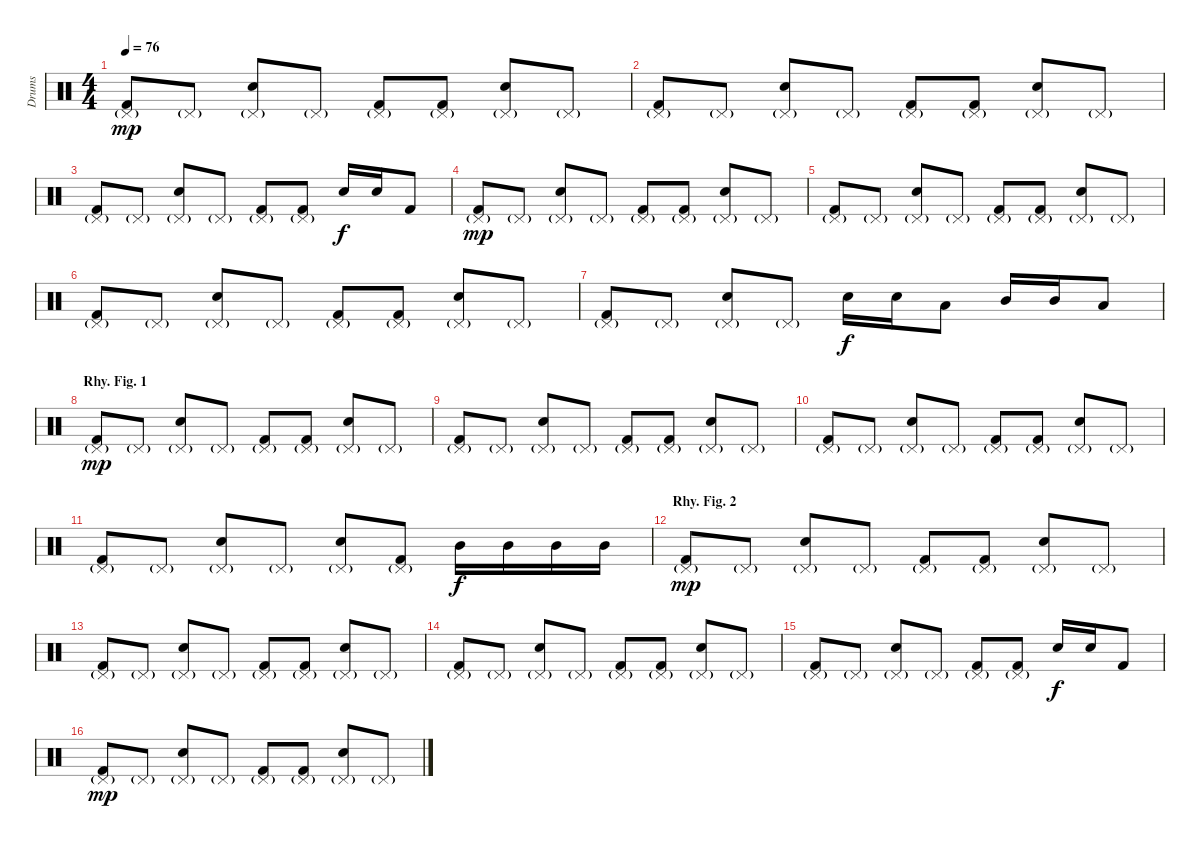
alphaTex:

\track ("Drums" "Drums") {instrument percussion}
\staff {score}
\articulation defaults
\ts (4 4)
\tempo 76
\clef neutral
\ks c
("Pedal Hi-Hat (hit)"{g} "Kick (hit) 2").8{dy mp} "Pedal Hi-Hat (hit)"{g}.8 ("Pedal Hi-Hat (hit)"{g} "Snare (hit) 2").8 "Pedal Hi-Hat (hit)"{g}.8 ("Pedal Hi-Hat (hit)"{g} "Kick (hit) 2").8 ("Pedal Hi-Hat (hit)"{g} "Kick (hit) 2").8 ("Pedal Hi-Hat (hit)"{g} "Snare (hit) 2").8 "Pedal Hi-Hat (hit)"{g}.8 |
("Pedal Hi-Hat (hit)"{g} "Kick (hit) 2").8 "Pedal Hi-Hat (hit)"{g}.8 ("Pedal Hi-Hat (hit)"{g} "Snare (hit) 2").8 "Pedal Hi-Hat (hit)"{g}.8 ("Pedal Hi-Hat (hit)"{g} "Kick (hit) 2").8 ("Pedal Hi-Hat (hit)"{g} "Kick (hit) 2").8 ("Pedal Hi-Hat (hit)"{g} "Snare (hit) 2").8 "Pedal Hi-Hat (hit)"{g}.8 |
("Pedal Hi-Hat (hit)"{g} "Kick (hit) 2").8 "Pedal Hi-Hat (hit)"{g}.8 ("Pedal Hi-Hat (hit)"{g} "Snare (hit) 2").8 "Pedal Hi-Hat (hit)"{g}.8 ("Pedal Hi-Hat (hit)"{g} "Kick (hit) 2").8 ("Pedal Hi-Hat (hit)"{g} "Kick (hit) 2").8 "Snare (hit) 2".16{dy f} "Snare (hit) 2".16 "Kick (hit) 2".8 |
("Pedal Hi-Hat (hit)"{g} "Kick (hit) 2").8{dy mp} "Pedal Hi-Hat (hit)"{g}.8 ("Pedal Hi-Hat (hit)"{g} "Snare (hit) 2").8 "Pedal Hi-Hat (hit)"{g}.8 ("Pedal Hi-Hat (hit)"{g} "Kick (hit) 2").8 ("Pedal Hi-Hat (hit)"{g} "Kick (hit) 2").8 ("Pedal Hi-Hat (hit)"{g} "Snare (hit) 2").8 "Pedal Hi-Hat (hit)"{g}.8 |
("Pedal Hi-Hat (hit)"{g} "Kick (hit) 2").8 "Pedal Hi-Hat (hit)"{g}.8 ("Pedal Hi-Hat (hit)"{g} "Snare (hit) 2").8 "Pedal Hi-Hat (hit)"{g}.8 ("Pedal Hi-Hat (hit)"{g} "Kick (hit) 2").8 ("Pedal Hi-Hat (hit)"{g} "Kick (hit) 2").8 ("Pedal Hi-Hat (hit)"{g} "Snare (hit) 2").8 "Pedal Hi-Hat (hit)"{g}.8 |
("Pedal Hi-Hat (hit)"{g} "Kick (hit) 2").8 "Pedal Hi-Hat (hit)"{g}.8 ("Pedal Hi-Hat (hit)"{g} "Snare (hit) 2").8 "Pedal Hi-Hat (hit)"{g}.8 ("Pedal Hi-Hat (hit)"{g} "Kick (hit) 2").8 ("Pedal Hi-Hat (hit)"{g} "Kick (hit) 2").8 ("Pedal Hi-Hat (hit)"{g} "Snare (hit) 2").8 "Pedal Hi-Hat (hit)"{g}.8 |
("Pedal Hi-Hat (hit)"{g} "Kick (hit) 2").8 "Pedal Hi-Hat (hit)"{g}.8 ("Pedal Hi-Hat (hit)"{g} "Snare (hit) 2").8 "Pedal Hi-Hat (hit)"{g}.8 "Snare (hit) 2".16{dy f} "Snare (hit) 2".16 "Low Tom (hit)".8 "Mid Tom (hit)".16 "Mid Tom (hit)".16 "Low Tom (hit)".8 |
\section ("" "Rhy. Fig. 1")
("Pedal Hi-Hat (hit)"{g} "Kick (hit) 2").8{dy mp} "Pedal Hi-Hat (hit)"{g}.8 ("Pedal Hi-Hat (hit)"{g} "Snare (hit) 2").8 "Pedal Hi-Hat (hit)"{g}.8 ("Pedal Hi-Hat (hit)"{g} "Kick (hit) 2").8 ("Pedal Hi-Hat (hit)"{g} "Kick (hit) 2").8 ("Pedal Hi-Hat (hit)"{g} "Snare (hit) 2").8 "Pedal Hi-Hat (hit)"{g}.8 |
("Pedal Hi-Hat (hit)"{g} "Kick (hit) 2").8 "Pedal Hi-Hat (hit)"{g}.8 ("Pedal Hi-Hat (hit)"{g} "Snare (hit) 2").8 "Pedal Hi-Hat (hit)"{g}.8 ("Pedal Hi-Hat (hit)"{g} "Kick (hit) 2").8 ("Pedal Hi-Hat (hit)"{g} "Kick (hit) 2").8 ("Pedal Hi-Hat (hit)"{g} "Snare (hit) 2").8 "Pedal Hi-Hat (hit)"{g}.8 |
("Pedal Hi-Hat (hit)"{g} "Kick (hit) 2").8 "Pedal Hi-Hat (hit)"{g}.8 ("Pedal Hi-Hat (hit)"{g} "Snare (hit) 2").8 "Pedal Hi-Hat (hit)"{g}.8 ("Pedal Hi-Hat (hit)"{g} "Kick (hit) 2").8 ("Pedal Hi-Hat (hit)"{g} "Kick (hit) 2").8 ("Pedal Hi-Hat (hit)"{g} "Snare (hit) 2").8 "Pedal Hi-Hat (hit)"{g}.8 |
("Pedal Hi-Hat (hit)"{g} "Kick (hit) 2").8 "Pedal Hi-Hat (hit)"{g}.8 ("Pedal Hi-Hat (hit)"{g} "Snare (hit) 2").8 "Pedal Hi-Hat (hit)"{g}.8 ("Pedal Hi-Hat (hit)"{g} "Snare (hit) 2").8 ("Pedal Hi-Hat (hit)"{g} "Kick (hit) 2").8 "Mid Tom (hit)".16{dy f} "Mid Tom (hit)".16 "Mid Tom (hit)".16 "Mid Tom (hit)".16 |
\section ("" "Rhy. Fig. 2")
("Pedal Hi-Hat (hit)"{g} "Kick (hit) 2").8{dy mp} "Pedal Hi-Hat (hit)"{g}.8 ("Pedal Hi-Hat (hit)"{g} "Snare (hit) 2").8 "Pedal Hi-Hat (hit)"{g}.8 ("Pedal Hi-Hat (hit)"{g} "Kick (hit) 2").8 ("Pedal Hi-Hat (hit)"{g} "Kick (hit) 2").8 ("Pedal Hi-Hat (hit)"{g} "Snare (hit) 2").8 "Pedal Hi-Hat (hit)"{g}.8 |
("Pedal Hi-Hat (hit)"{g} "Kick (hit) 2").8 "Pedal Hi-Hat (hit)"{g}.8 ("Pedal Hi-Hat (hit)"{g} "Snare (hit) 2").8 "Pedal Hi-Hat (hit)"{g}.8 ("Pedal Hi-Hat (hit)"{g} "Kick (hit) 2").8 ("Pedal Hi-Hat (hit)"{g} "Kick (hit) 2").8 ("Pedal Hi-Hat (hit)"{g} "Snare (hit) 2").8 "Pedal Hi-Hat (hit)"{g}.8 |
("Pedal Hi-Hat (hit)"{g} "Kick (hit) 2").8 "Pedal Hi-Hat (hit)"{g}.8 ("Pedal Hi-Hat (hit)"{g} "Snare (hit) 2").8 "Pedal Hi-Hat (hit)"{g}.8 ("Pedal Hi-Hat (hit)"{g} "Kick (hit) 2").8 ("Pedal Hi-Hat (hit)"{g} "Kick (hit) 2").8 ("Pedal Hi-Hat (hit)"{g} "Snare (hit) 2").8 "Pedal Hi-Hat (hit)"{g}.8 |
("Pedal Hi-Hat (hit)"{g} "Kick (hit) 2").8 "Pedal Hi-Hat (hit)"{g}.8 ("Pedal Hi-Hat (hit)"{g} "Snare (hit) 2").8 "Pedal Hi-Hat (hit)"{g}.8 ("Pedal Hi-Hat (hit)"{g} "Kick (hit) 2").8 ("Pedal Hi-Hat (hit)"{g} "Kick (hit) 2").8 "Snare (hit) 2".16{dy f} "Snare (hit) 2".16 "Kick (hit) 2".8 |
("Pedal Hi-Hat (hit)"{g} "Kick (hit) 2").8{dy mp} "Pedal Hi-Hat (hit)"{g}.8 ("Pedal Hi-Hat (hit)"{g} "Snare (hit) 2").8 "Pedal Hi-Hat (hit)"{g}.8 ("Pedal Hi-Hat (hit)"{g} "Kick (hit) 2").8 ("Pedal Hi-Hat (hit)"{g} "Kick (hit) 2").8 ("Pedal Hi-Hat (hit)"{g} "Snare (hit) 2").8 "Pedal Hi-Hat (hit)"{g}.8
